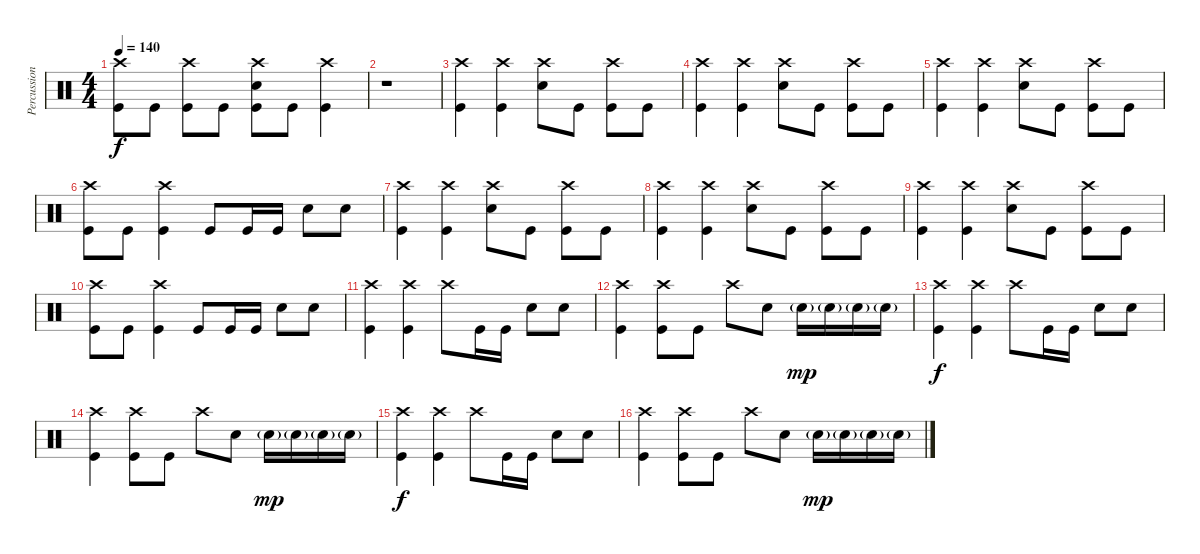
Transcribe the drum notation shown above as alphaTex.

\track ("Percussion" "Percussion") {instrument percussion}
\staff {score}
\articulation defaults
\ts (4 4)
\tempo 140
\clef neutral
\ks c
("Crash high (hit)" "Kick (hit)").8{dy f} "Kick (hit)".8 ("Crash high (hit)" "Kick (hit)").8 "Kick (hit)".8 ("Crash high (hit)" "Electric Snare (hit)" "Kick (hit)").8 "Kick (hit)".8 ("Crash high (hit)" "Kick (hit)").4 |
r.1 |
("Crash high (hit)" "Kick (hit)").4 ("Crash high (hit)" "Kick (hit)").4 ("Crash high (hit)" "Electric Snare (hit)").8 "Kick (hit)".8 ("Crash high (hit)" "Kick (hit)").8 "Kick (hit)".8 |
("Crash high (hit)" "Kick (hit)").4 ("Crash high (hit)" "Kick (hit)").4 ("Crash high (hit)" "Electric Snare (hit)").8 "Kick (hit)".8 ("Crash high (hit)" "Kick (hit)").8 "Kick (hit)".8 |
("Crash high (hit)" "Kick (hit)").4 ("Crash high (hit)" "Kick (hit)").4 ("Crash high (hit)" "Electric Snare (hit)").8 "Kick (hit)".8 ("Crash high (hit)" "Kick (hit)").8 "Kick (hit)".8 |
("Crash high (hit)" "Kick (hit)").8 "Kick (hit)".8 ("Crash high (hit)" "Kick (hit)").4 "Kick (hit)".8 "Kick (hit)".16 "Kick (hit)".16 "Electric Snare (hit)".8 "Electric Snare (hit)".8 |
("Crash high (hit)" "Kick (hit)").4 ("Crash high (hit)" "Kick (hit)").4 ("Crash high (hit)" "Electric Snare (hit)").8 "Kick (hit)".8 ("Crash high (hit)" "Kick (hit)").8 "Kick (hit)".8 |
("Crash high (hit)" "Kick (hit)").4 ("Crash high (hit)" "Kick (hit)").4 ("Crash high (hit)" "Electric Snare (hit)").8 "Kick (hit)".8 ("Crash high (hit)" "Kick (hit)").8 "Kick (hit)".8 |
("Crash high (hit)" "Kick (hit)").4 ("Crash high (hit)" "Kick (hit)").4 ("Crash high (hit)" "Electric Snare (hit)").8 "Kick (hit)".8 ("Crash high (hit)" "Kick (hit)").8 "Kick (hit)".8 |
("Crash high (hit)" "Kick (hit)").8 "Kick (hit)".8 ("Crash high (hit)" "Kick (hit)").4 "Kick (hit)".8 "Kick (hit)".16 "Kick (hit)".16 "Electric Snare (hit)".8 "Electric Snare (hit)".8 |
("Crash high (hit)" "Kick (hit)").4 ("Crash high (hit)" "Kick (hit)").4 "Crash high (hit)".8 "Kick (hit)".16 "Kick (hit)".16 "Electric Snare (hit)".8 "Electric Snare (hit)".8 |
("Crash high (hit)" "Kick (hit)").4 ("Crash high (hit)" "Kick (hit)").8 "Kick (hit)".8 "Crash high (hit)".8 "Snare (hit) 2".8 "Snare (hit) 2"{g}.16{dy mp} "Snare (hit) 2"{g}.16 "Snare (hit) 2"{g}.16 "Snare (hit) 2"{g}.16 |
("Crash high (hit)" "Kick (hit)").4{dy f} ("Crash high (hit)" "Kick (hit)").4 "Crash high (hit)".8 "Kick (hit)".16 "Kick (hit)".16 "Electric Snare (hit)".8 "Electric Snare (hit)".8 |
("Crash high (hit)" "Kick (hit)").4 ("Crash high (hit)" "Kick (hit)").8 "Kick (hit)".8 "Crash high (hit)".8 "Snare (hit) 2".8 "Snare (hit) 2"{g}.16{dy mp} "Snare (hit) 2"{g}.16 "Snare (hit) 2"{g}.16 "Snare (hit) 2"{g}.16 |
("Crash high (hit)" "Kick (hit)").4{dy f} ("Crash high (hit)" "Kick (hit)").4 "Crash high (hit)".8 "Kick (hit)".16 "Kick (hit)".16 "Electric Snare (hit)".8 "Electric Snare (hit)".8 |
("Crash high (hit)" "Kick (hit)").4 ("Crash high (hit)" "Kick (hit)").8 "Kick (hit)".8 "Crash high (hit)".8 "Snare (hit) 2".8 "Snare (hit) 2"{g}.16{dy mp} "Snare (hit) 2"{g}.16 "Snare (hit) 2"{g}.16 "Snare (hit) 2"{g}.16
